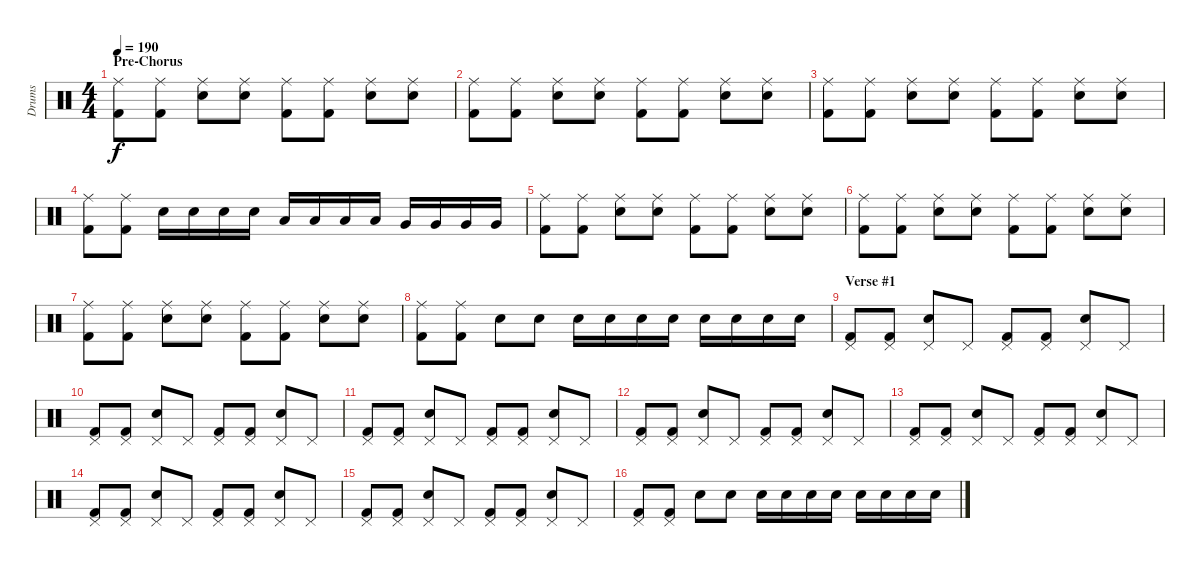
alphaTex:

\track ("Drums" "Drums") {instrument percussion}
\staff {score}
\articulation defaults
\ts (4 4)
\section ("" "Pre-Chorus")
\tempo 190
\clef neutral
\ks c
("Kick (hit) 2" "Ride (middle)").8{dy f} ("Kick (hit) 2" "Ride (middle)").8 ("Electric Snare (hit)" "Ride (middle)").8 ("Electric Snare (hit)" "Ride (middle)").8 ("Kick (hit) 2" "Ride (middle)").8 ("Kick (hit) 2" "Ride (middle)").8 ("Electric Snare (hit)" "Ride (middle)").8 ("Electric Snare (hit)" "Ride (middle)").8 |
("Kick (hit) 2" "Ride (middle)").8 ("Kick (hit) 2" "Ride (middle)").8 ("Electric Snare (hit)" "Ride (middle)").8 ("Electric Snare (hit)" "Ride (middle)").8 ("Kick (hit) 2" "Ride (middle)").8 ("Kick (hit) 2" "Ride (middle)").8 ("Electric Snare (hit)" "Ride (middle)").8 ("Electric Snare (hit)" "Ride (middle)").8 |
("Kick (hit) 2" "Ride (middle)").8 ("Kick (hit) 2" "Ride (middle)").8 ("Electric Snare (hit)" "Ride (middle)").8 ("Electric Snare (hit)" "Ride (middle)").8 ("Kick (hit) 2" "Ride (middle)").8 ("Kick (hit) 2" "Ride (middle)").8 ("Electric Snare (hit)" "Ride (middle)").8 ("Electric Snare (hit)" "Ride (middle)").8 |
("Kick (hit) 2" "Ride (middle)").8 ("Kick (hit) 2" "Ride (middle)").8 "Electric Snare (hit)".16 "Electric Snare (hit)".16 "Electric Snare (hit)".16 "Electric Snare (hit)".16 "Low Floor Tom (hit)".16 "Low Floor Tom (hit)".16 "Low Floor Tom (hit)".16 "Low Floor Tom (hit)".16 "Very Low Tom (hit)".16 "Very Low Tom (hit)".16 "Very Low Tom (hit)".16 "Very Low Tom (hit)".16 |
("Kick (hit) 2" "Ride (middle)").8 ("Kick (hit) 2" "Ride (middle)").8 ("Electric Snare (hit)" "Ride (middle)").8 ("Electric Snare (hit)" "Ride (middle)").8 ("Kick (hit) 2" "Ride (middle)").8 ("Kick (hit) 2" "Ride (middle)").8 ("Electric Snare (hit)" "Ride (middle)").8 ("Electric Snare (hit)" "Ride (middle)").8 |
("Kick (hit) 2" "Ride (middle)").8 ("Kick (hit) 2" "Ride (middle)").8 ("Electric Snare (hit)" "Ride (middle)").8 ("Electric Snare (hit)" "Ride (middle)").8 ("Kick (hit) 2" "Ride (middle)").8 ("Kick (hit) 2" "Ride (middle)").8 ("Electric Snare (hit)" "Ride (middle)").8 ("Electric Snare (hit)" "Ride (middle)").8 |
("Kick (hit) 2" "Ride (middle)").8 ("Kick (hit) 2" "Ride (middle)").8 ("Electric Snare (hit)" "Ride (middle)").8 ("Electric Snare (hit)" "Ride (middle)").8 ("Kick (hit) 2" "Ride (middle)").8 ("Kick (hit) 2" "Ride (middle)").8 ("Electric Snare (hit)" "Ride (middle)").8 ("Electric Snare (hit)" "Ride (middle)").8 |
("Kick (hit) 2" "Ride (middle)").8 ("Kick (hit) 2" "Ride (middle)").8 "Electric Snare (hit)".8 "Electric Snare (hit)".8 "Electric Snare (hit)".16 "Electric Snare (hit)".16 "Electric Snare (hit)".16 "Electric Snare (hit)".16 "Electric Snare (hit)".16 "Electric Snare (hit)".16 "Electric Snare (hit)".16 "Electric Snare (hit)".16 |
\section ("" "Verse #1")
("Kick (hit) 2" "Pedal Hi-Hat (hit)").8 ("Kick (hit) 2" "Pedal Hi-Hat (hit)").8 ("Electric Snare (hit)" "Pedal Hi-Hat (hit)").8 "Pedal Hi-Hat (hit)".8 ("Kick (hit) 2" "Pedal Hi-Hat (hit)").8 ("Kick (hit) 2" "Pedal Hi-Hat (hit)").8 ("Electric Snare (hit)" "Pedal Hi-Hat (hit)").8 "Pedal Hi-Hat (hit)".8 |
("Kick (hit) 2" "Pedal Hi-Hat (hit)").8 ("Kick (hit) 2" "Pedal Hi-Hat (hit)").8 ("Electric Snare (hit)" "Pedal Hi-Hat (hit)").8 "Pedal Hi-Hat (hit)".8 ("Kick (hit) 2" "Pedal Hi-Hat (hit)").8 ("Kick (hit) 2" "Pedal Hi-Hat (hit)").8 ("Electric Snare (hit)" "Pedal Hi-Hat (hit)").8 "Pedal Hi-Hat (hit)".8 |
("Kick (hit) 2" "Pedal Hi-Hat (hit)").8 ("Kick (hit) 2" "Pedal Hi-Hat (hit)").8 ("Electric Snare (hit)" "Pedal Hi-Hat (hit)").8 "Pedal Hi-Hat (hit)".8 ("Kick (hit) 2" "Pedal Hi-Hat (hit)").8 ("Kick (hit) 2" "Pedal Hi-Hat (hit)").8 ("Electric Snare (hit)" "Pedal Hi-Hat (hit)").8 "Pedal Hi-Hat (hit)".8 |
("Kick (hit) 2" "Pedal Hi-Hat (hit)").8 ("Kick (hit) 2" "Pedal Hi-Hat (hit)").8 ("Electric Snare (hit)" "Pedal Hi-Hat (hit)").8 "Pedal Hi-Hat (hit)".8 ("Kick (hit) 2" "Pedal Hi-Hat (hit)").8 ("Kick (hit) 2" "Pedal Hi-Hat (hit)").8 ("Electric Snare (hit)" "Pedal Hi-Hat (hit)").8 "Pedal Hi-Hat (hit)".8 |
("Kick (hit) 2" "Pedal Hi-Hat (hit)").8 ("Kick (hit) 2" "Pedal Hi-Hat (hit)").8 ("Electric Snare (hit)" "Pedal Hi-Hat (hit)").8 "Pedal Hi-Hat (hit)".8 ("Kick (hit) 2" "Pedal Hi-Hat (hit)").8 ("Kick (hit) 2" "Pedal Hi-Hat (hit)").8 ("Electric Snare (hit)" "Pedal Hi-Hat (hit)").8 "Pedal Hi-Hat (hit)".8 |
("Kick (hit) 2" "Pedal Hi-Hat (hit)").8 ("Kick (hit) 2" "Pedal Hi-Hat (hit)").8 ("Electric Snare (hit)" "Pedal Hi-Hat (hit)").8 "Pedal Hi-Hat (hit)".8 ("Kick (hit) 2" "Pedal Hi-Hat (hit)").8 ("Kick (hit) 2" "Pedal Hi-Hat (hit)").8 ("Electric Snare (hit)" "Pedal Hi-Hat (hit)").8 "Pedal Hi-Hat (hit)".8 |
("Kick (hit) 2" "Pedal Hi-Hat (hit)").8 ("Kick (hit) 2" "Pedal Hi-Hat (hit)").8 ("Electric Snare (hit)" "Pedal Hi-Hat (hit)").8 "Pedal Hi-Hat (hit)".8 ("Kick (hit) 2" "Pedal Hi-Hat (hit)").8 ("Kick (hit) 2" "Pedal Hi-Hat (hit)").8 ("Electric Snare (hit)" "Pedal Hi-Hat (hit)").8 "Pedal Hi-Hat (hit)".8 |
("Kick (hit) 2" "Pedal Hi-Hat (hit)").8 ("Kick (hit) 2" "Pedal Hi-Hat (hit)").8 "Electric Snare (hit)".8 "Electric Snare (hit)".8 "Electric Snare (hit)".16 "Electric Snare (hit)".16 "Electric Snare (hit)".16 "Electric Snare (hit)".16 "Electric Snare (hit)".16 "Electric Snare (hit)".16 "Electric Snare (hit)".16 "Electric Snare (hit)".16
